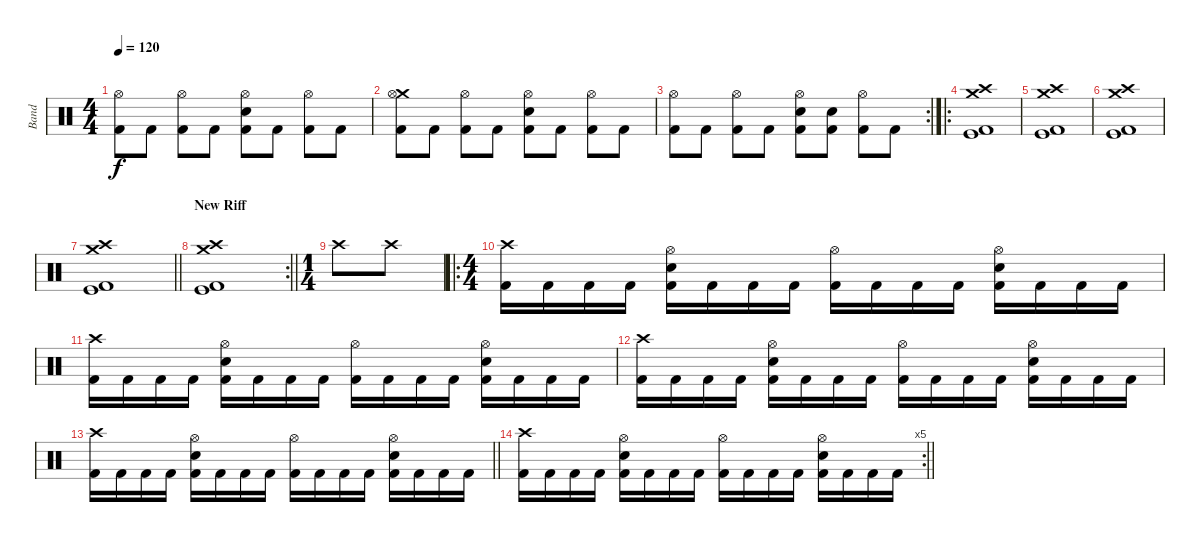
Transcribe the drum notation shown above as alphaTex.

\track ("Band" "Band") {instrument percussion}
\staff {score}
\articulation defaults
\ts (4 4)
\tempo 120
\clef neutral
\ks c
("Hi-Hat (open)" "Kick (hit) 2").8{dy f} "Kick (hit) 2".8 ("Hi-Hat (open)" "Kick (hit) 2").8 "Kick (hit) 2".8 ("Electric Snare (hit)" "Hi-Hat (open)" "Kick (hit) 2").8 "Kick (hit) 2".8 ("Hi-Hat (open)" "Kick (hit) 2").8 "Kick (hit) 2".8 |
("Crash medium (hit)" "Hi-Hat (open)" "Kick (hit) 2").8 "Kick (hit) 2".8 ("Hi-Hat (open)" "Kick (hit) 2").8 "Kick (hit) 2".8 ("Electric Snare (hit)" "Hi-Hat (open)" "Kick (hit) 2").8 "Kick (hit) 2".8 ("Hi-Hat (open)" "Kick (hit) 2").8 "Kick (hit) 2".8 |
\rc 2
("Hi-Hat (open)" "Kick (hit) 2").8 "Kick (hit) 2".8 ("Hi-Hat (open)" "Kick (hit) 2").8 "Kick (hit) 2".8 ("Electric Snare (hit)" "Hi-Hat (open)" "Kick (hit) 2").8 ("Electric Snare (hit)" "Kick (hit) 2").8 ("Hi-Hat (open)" "Kick (hit) 2").8 "Kick (hit) 2".8 |
\ro
("Crash medium (hit)" "Crash high (hit)" "Kick (hit) 2" "Kick (hit)").1 |
("Crash medium (hit)" "Crash high (hit)" "Kick (hit) 2" "Kick (hit)").1 |
("Crash medium (hit)" "Crash high (hit)" "Kick (hit) 2" "Kick (hit)").1 |
\barLineRight lightlight
("Crash medium (hit)" "Crash high (hit)" "Kick (hit) 2" "Kick (hit)").1 |
\rc 2
\section ("" "New Riff")
\barLineRight lightlight
("Crash medium (hit)" "Crash high (hit)" "Kick (hit) 2" "Kick (hit)").1 |
\ts (1 4)
"Crash high (hit)".8 "Crash high (hit)".8 |
\ro
\ts (4 4)
("Crash high (hit)" "Kick (hit) 2").16 "Kick (hit) 2".16 "Kick (hit) 2".16 "Kick (hit) 2".16 ("Hi-Hat (open)" "Electric Snare (hit)" "Kick (hit) 2").16 "Kick (hit) 2".16 "Kick (hit) 2".16 "Kick (hit) 2".16 ("Hi-Hat (open)" "Kick (hit) 2").16 "Kick (hit) 2".16 "Kick (hit) 2".16 "Kick (hit) 2".16 ("Hi-Hat (open)" "Electric Snare (hit)" "Kick (hit) 2").16 "Kick (hit) 2".16 "Kick (hit) 2".16 "Kick (hit) 2".16 |
("Crash high (hit)" "Kick (hit) 2").16 "Kick (hit) 2".16 "Kick (hit) 2".16 "Kick (hit) 2".16 ("Hi-Hat (open)" "Electric Snare (hit)" "Kick (hit) 2").16 "Kick (hit) 2".16 "Kick (hit) 2".16 "Kick (hit) 2".16 ("Hi-Hat (open)" "Kick (hit) 2").16 "Kick (hit) 2".16 "Kick (hit) 2".16 "Kick (hit) 2".16 ("Hi-Hat (open)" "Electric Snare (hit)" "Kick (hit) 2").16 "Kick (hit) 2".16 "Kick (hit) 2".16 "Kick (hit) 2".16 |
("Crash high (hit)" "Kick (hit) 2").16 "Kick (hit) 2".16 "Kick (hit) 2".16 "Kick (hit) 2".16 ("Hi-Hat (open)" "Electric Snare (hit)" "Kick (hit) 2").16 "Kick (hit) 2".16 "Kick (hit) 2".16 "Kick (hit) 2".16 ("Hi-Hat (open)" "Kick (hit) 2").16 "Kick (hit) 2".16 "Kick (hit) 2".16 "Kick (hit) 2".16 ("Hi-Hat (open)" "Electric Snare (hit)" "Kick (hit) 2").16 "Kick (hit) 2".16 "Kick (hit) 2".16 "Kick (hit) 2".16 |
\barLineRight lightlight
("Crash high (hit)" "Kick (hit) 2").16 "Kick (hit) 2".16 "Kick (hit) 2".16 "Kick (hit) 2".16 ("Hi-Hat (open)" "Electric Snare (hit)" "Kick (hit) 2").16 "Kick (hit) 2".16 "Kick (hit) 2".16 "Kick (hit) 2".16 ("Hi-Hat (open)" "Kick (hit) 2").16 "Kick (hit) 2".16 "Kick (hit) 2".16 "Kick (hit) 2".16 ("Hi-Hat (open)" "Electric Snare (hit)" "Kick (hit) 2").16 "Kick (hit) 2".16 "Kick (hit) 2".16 "Kick (hit) 2".16 |
\rc 5
\barLineRight lightlight
("Crash high (hit)" "Kick (hit) 2").16 "Kick (hit) 2".16 "Kick (hit) 2".16 "Kick (hit) 2".16 ("Hi-Hat (open)" "Electric Snare (hit)" "Kick (hit) 2").16 "Kick (hit) 2".16 "Kick (hit) 2".16 "Kick (hit) 2".16 ("Hi-Hat (open)" "Kick (hit) 2").16 "Kick (hit) 2".16 "Kick (hit) 2".16 "Kick (hit) 2".16 ("Hi-Hat (open)" "Electric Snare (hit)" "Kick (hit) 2").16 "Kick (hit) 2".16 "Kick (hit) 2".16 "Kick (hit) 2".16
